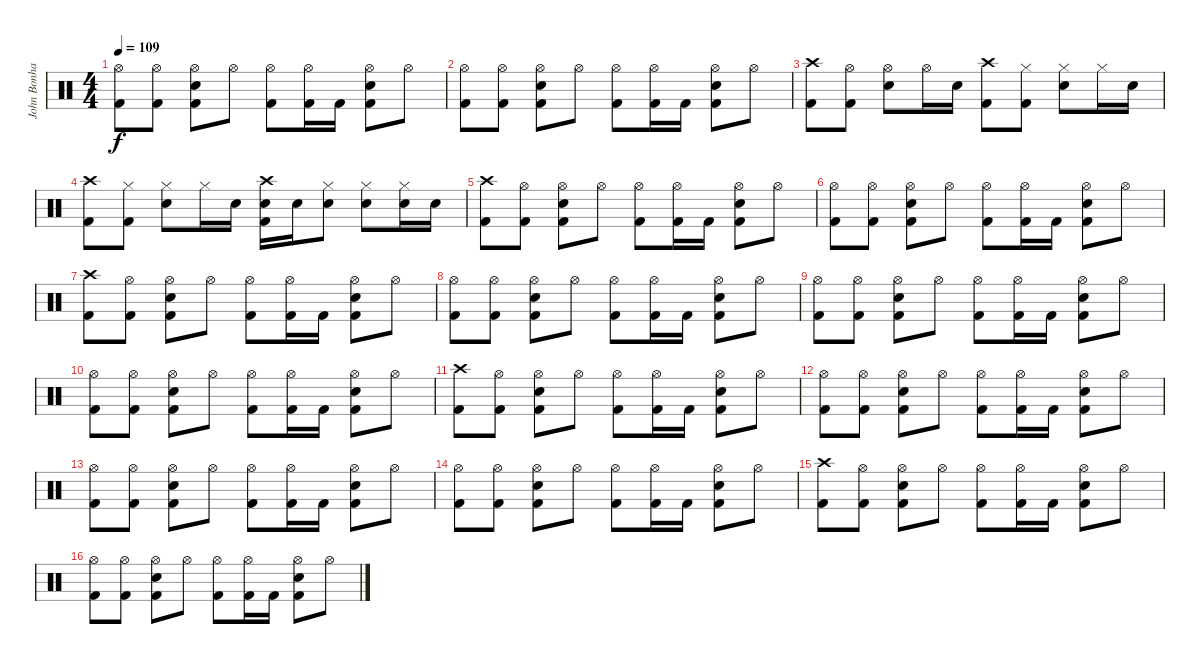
\track ("John Bonham" "John Bonha") {instrument percussion}
\staff {score}
\articulation defaults
\ts (4 4)
\tempo 109
\clef neutral
\ks c
("Kick (hit) 2" "Hi-Hat (open)").8{dy f} ("Kick (hit) 2" "Hi-Hat (open)").8 ("Kick (hit) 2" "Snare (hit) 2" "Hi-Hat (open)").8 "Hi-Hat (open)".8 ("Kick (hit) 2" "Hi-Hat (open)").8 ("Kick (hit) 2" "Hi-Hat (open)").16 "Kick (hit) 2".16 ("Kick (hit) 2" "Electric Snare (hit)" "Hi-Hat (open)").8 "Hi-Hat (open)".8 |
("Kick (hit) 2" "Hi-Hat (open)").8 ("Kick (hit) 2" "Hi-Hat (open)").8 ("Kick (hit) 2" "Snare (hit) 2" "Hi-Hat (open)").8 "Hi-Hat (open)".8 ("Kick (hit) 2" "Hi-Hat (open)").8 ("Kick (hit) 2" "Hi-Hat (open)").16 "Kick (hit) 2".16 ("Kick (hit) 2" "Electric Snare (hit)" "Hi-Hat (open)").8 "Hi-Hat (open)".8 |
("Kick (hit) 2" "Crash high (hit)").8 ("Kick (hit) 2" "Hi-Hat (open)").8 ("Electric Snare (hit)" "Hi-Hat (open)").8 "Hi-Hat (open)".16 "Snare (hit) 2".16 ("Kick (hit) 2" "Crash high (hit)").8 ("Kick (hit) 2" "Hi-Hat (closed)").8 ("Snare (hit) 2" "Hi-Hat (closed)").8 "Hi-Hat (closed)".16 "Snare (hit) 2".16 |
("Kick (hit) 2" "Crash high (hit)").8 ("Kick (hit) 2" "Hi-Hat (closed)").8 ("Electric Snare (hit)" "Hi-Hat (closed)").8 "Hi-Hat (closed)".16 "Electric Snare (hit)".16 ("Kick (hit) 2" "Snare (hit) 2" "Crash high (hit)").16 "Electric Snare (hit)".16 ("Snare (hit) 2" "Hi-Hat (closed)").8 ("Snare (hit) 2" "Hi-Hat (closed)").8 ("Snare (hit) 2" "Hi-Hat (closed)").16 "Electric Snare (hit)".16 |
("Kick (hit) 2" "Crash high (hit)").8 ("Kick (hit) 2" "Hi-Hat (open)").8 ("Electric Snare (hit)" "Kick (hit) 2" "Hi-Hat (open)").8 "Hi-Hat (open)".8 ("Kick (hit) 2" "Hi-Hat (open)").8 ("Kick (hit) 2" "Hi-Hat (open)").16 "Kick (hit) 2".16 ("Kick (hit) 2" "Snare (hit) 2" "Hi-Hat (open)").8 "Hi-Hat (open)".8 |
("Kick (hit) 2" "Hi-Hat (open)").8 ("Kick (hit) 2" "Hi-Hat (open)").8 ("Kick (hit) 2" "Snare (hit) 2" "Hi-Hat (open)").8 "Hi-Hat (open)".8 ("Kick (hit) 2" "Hi-Hat (open)").8 ("Kick (hit) 2" "Hi-Hat (open)").16 "Kick (hit) 2".16 ("Kick (hit) 2" "Electric Snare (hit)" "Hi-Hat (open)").8 "Hi-Hat (open)".8 |
("Kick (hit) 2" "Crash high (hit)").8 ("Kick (hit) 2" "Hi-Hat (open)").8 ("Electric Snare (hit)" "Kick (hit) 2" "Hi-Hat (open)").8 "Hi-Hat (open)".8 ("Kick (hit) 2" "Hi-Hat (open)").8 ("Kick (hit) 2" "Hi-Hat (open)").16 "Kick (hit) 2".16 ("Kick (hit) 2" "Snare (hit) 2" "Hi-Hat (open)").8 "Hi-Hat (open)".8 |
("Kick (hit) 2" "Hi-Hat (open)").8 ("Kick (hit) 2" "Hi-Hat (open)").8 ("Kick (hit) 2" "Snare (hit) 2" "Hi-Hat (open)").8 "Hi-Hat (open)".8 ("Kick (hit) 2" "Hi-Hat (open)").8 ("Kick (hit) 2" "Hi-Hat (open)").16 "Kick (hit) 2".16 ("Kick (hit) 2" "Electric Snare (hit)" "Hi-Hat (open)").8 "Hi-Hat (open)".8 |
("Kick (hit) 2" "Hi-Hat (open)").8 ("Kick (hit) 2" "Hi-Hat (open)").8 ("Kick (hit) 2" "Snare (hit) 2" "Hi-Hat (open)").8 "Hi-Hat (open)".8 ("Kick (hit) 2" "Hi-Hat (open)").8 ("Kick (hit) 2" "Hi-Hat (open)").16 "Kick (hit) 2".16 ("Kick (hit) 2" "Electric Snare (hit)" "Hi-Hat (open)").8 "Hi-Hat (open)".8 |
("Kick (hit) 2" "Hi-Hat (open)").8 ("Kick (hit) 2" "Hi-Hat (open)").8 ("Kick (hit) 2" "Snare (hit) 2" "Hi-Hat (open)").8 "Hi-Hat (open)".8 ("Kick (hit) 2" "Hi-Hat (open)").8 ("Kick (hit) 2" "Hi-Hat (open)").16 "Kick (hit) 2".16 ("Kick (hit) 2" "Electric Snare (hit)" "Hi-Hat (open)").8 "Hi-Hat (open)".8 |
("Kick (hit) 2" "Crash high (hit)").8 ("Kick (hit) 2" "Hi-Hat (open)").8 ("Electric Snare (hit)" "Kick (hit) 2" "Hi-Hat (open)").8 "Hi-Hat (open)".8 ("Kick (hit) 2" "Hi-Hat (open)").8 ("Kick (hit) 2" "Hi-Hat (open)").16 "Kick (hit) 2".16 ("Kick (hit) 2" "Snare (hit) 2" "Hi-Hat (open)").8 "Hi-Hat (open)".8 |
("Kick (hit) 2" "Hi-Hat (open)").8 ("Kick (hit) 2" "Hi-Hat (open)").8 ("Kick (hit) 2" "Snare (hit) 2" "Hi-Hat (open)").8 "Hi-Hat (open)".8 ("Kick (hit) 2" "Hi-Hat (open)").8 ("Kick (hit) 2" "Hi-Hat (open)").16 "Kick (hit) 2".16 ("Kick (hit) 2" "Electric Snare (hit)" "Hi-Hat (open)").8 "Hi-Hat (open)".8 |
("Kick (hit) 2" "Hi-Hat (open)").8 ("Kick (hit) 2" "Hi-Hat (open)").8 ("Kick (hit) 2" "Snare (hit) 2" "Hi-Hat (open)").8 "Hi-Hat (open)".8 ("Kick (hit) 2" "Hi-Hat (open)").8 ("Kick (hit) 2" "Hi-Hat (open)").16 "Kick (hit) 2".16 ("Kick (hit) 2" "Electric Snare (hit)" "Hi-Hat (open)").8 "Hi-Hat (open)".8 |
("Kick (hit) 2" "Hi-Hat (open)").8 ("Kick (hit) 2" "Hi-Hat (open)").8 ("Kick (hit) 2" "Snare (hit) 2" "Hi-Hat (open)").8 "Hi-Hat (open)".8 ("Kick (hit) 2" "Hi-Hat (open)").8 ("Kick (hit) 2" "Hi-Hat (open)").16 "Kick (hit) 2".16 ("Kick (hit) 2" "Electric Snare (hit)" "Hi-Hat (open)").8 "Hi-Hat (open)".8 |
("Kick (hit) 2" "Crash high (hit)").8 ("Kick (hit) 2" "Hi-Hat (open)").8 ("Electric Snare (hit)" "Kick (hit) 2" "Hi-Hat (open)").8 "Hi-Hat (open)".8 ("Kick (hit) 2" "Hi-Hat (open)").8 ("Kick (hit) 2" "Hi-Hat (open)").16 "Kick (hit) 2".16 ("Kick (hit) 2" "Snare (hit) 2" "Hi-Hat (open)").8 "Hi-Hat (open)".8 |
("Kick (hit) 2" "Hi-Hat (open)").8 ("Kick (hit) 2" "Hi-Hat (open)").8 ("Kick (hit) 2" "Snare (hit) 2" "Hi-Hat (open)").8 "Hi-Hat (open)".8 ("Kick (hit) 2" "Hi-Hat (open)").8 ("Kick (hit) 2" "Hi-Hat (open)").16 "Kick (hit) 2".16 ("Kick (hit) 2" "Electric Snare (hit)" "Hi-Hat (open)").8 "Hi-Hat (open)".8
